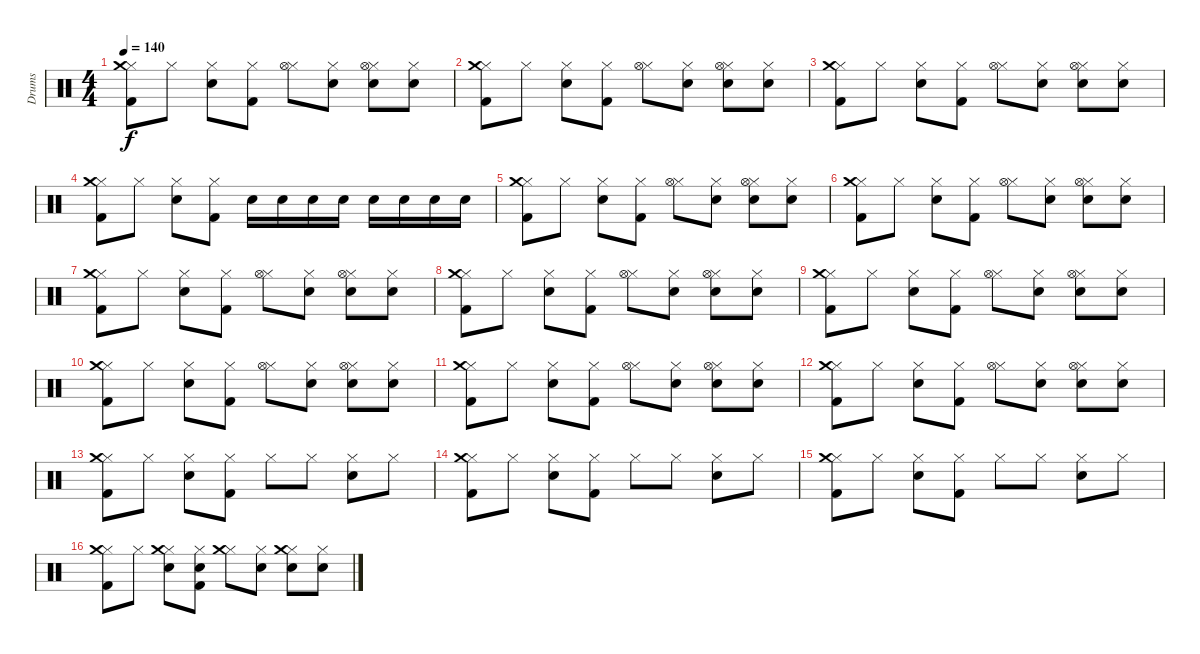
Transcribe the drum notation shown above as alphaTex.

\track ("Drums" "Drums") {instrument percussion}
\staff {score}
\articulation defaults
\ts (4 4)
\tempo 140
\clef neutral
\ks c
("Hi-Hat (closed)" "Kick (hit) 2" "Crash medium (hit)").8{dy f} "Hi-Hat (closed)".8 ("Hi-Hat (closed)" "Electric Snare (hit)").8 ("Hi-Hat (closed)" "Kick (hit) 2").8 ("Hi-Hat (closed)" "Hi-Hat (open)").8 ("Hi-Hat (closed)" "Electric Snare (hit)").8 ("Hi-Hat (closed)" "Electric Snare (hit)" "Hi-Hat (open)").8 ("Hi-Hat (closed)" "Electric Snare (hit)").8 |
("Hi-Hat (closed)" "Kick (hit) 2" "Crash medium (hit)").8 "Hi-Hat (closed)".8 ("Hi-Hat (closed)" "Electric Snare (hit)").8 ("Hi-Hat (closed)" "Kick (hit) 2").8 ("Hi-Hat (closed)" "Hi-Hat (open)").8 ("Hi-Hat (closed)" "Electric Snare (hit)").8 ("Hi-Hat (closed)" "Electric Snare (hit)" "Hi-Hat (open)").8 ("Hi-Hat (closed)" "Electric Snare (hit)").8 |
("Hi-Hat (closed)" "Kick (hit) 2" "Crash medium (hit)").8 "Hi-Hat (closed)".8 ("Hi-Hat (closed)" "Electric Snare (hit)").8 ("Hi-Hat (closed)" "Kick (hit) 2").8 ("Hi-Hat (closed)" "Hi-Hat (open)").8 ("Hi-Hat (closed)" "Electric Snare (hit)").8 ("Hi-Hat (closed)" "Electric Snare (hit)" "Hi-Hat (open)").8 ("Hi-Hat (closed)" "Electric Snare (hit)").8 |
("Hi-Hat (closed)" "Kick (hit) 2" "Crash medium (hit)").8 "Hi-Hat (closed)".8 ("Hi-Hat (closed)" "Electric Snare (hit)").8 ("Hi-Hat (closed)" "Kick (hit) 2").8 "Electric Snare (hit)".16 "Snare (hit) 2".16 "Electric Snare (hit)".16 "Snare (hit) 2".16 "Electric Snare (hit)".16 "Snare (hit) 2".16 "Electric Snare (hit)".16 "Snare (hit) 2".16 |
("Hi-Hat (closed)" "Kick (hit) 2" "Crash medium (hit)").8 "Hi-Hat (closed)".8 ("Hi-Hat (closed)" "Electric Snare (hit)").8 ("Hi-Hat (closed)" "Kick (hit) 2").8 ("Hi-Hat (closed)" "Hi-Hat (open)").8 ("Hi-Hat (closed)" "Electric Snare (hit)").8 ("Hi-Hat (closed)" "Electric Snare (hit)" "Hi-Hat (open)").8 ("Hi-Hat (closed)" "Electric Snare (hit)").8 |
("Hi-Hat (closed)" "Kick (hit) 2" "Crash medium (hit)").8 "Hi-Hat (closed)".8 ("Hi-Hat (closed)" "Electric Snare (hit)").8 ("Hi-Hat (closed)" "Kick (hit) 2").8 ("Hi-Hat (closed)" "Hi-Hat (open)").8 ("Hi-Hat (closed)" "Electric Snare (hit)").8 ("Hi-Hat (closed)" "Electric Snare (hit)" "Hi-Hat (open)").8 ("Hi-Hat (closed)" "Electric Snare (hit)").8 |
("Hi-Hat (closed)" "Kick (hit) 2" "Crash medium (hit)").8 "Hi-Hat (closed)".8 ("Hi-Hat (closed)" "Electric Snare (hit)").8 ("Hi-Hat (closed)" "Kick (hit) 2").8 ("Hi-Hat (closed)" "Hi-Hat (open)").8 ("Hi-Hat (closed)" "Electric Snare (hit)").8 ("Hi-Hat (closed)" "Electric Snare (hit)" "Hi-Hat (open)").8 ("Hi-Hat (closed)" "Electric Snare (hit)").8 |
("Hi-Hat (closed)" "Kick (hit) 2" "Crash medium (hit)").8 "Hi-Hat (closed)".8 ("Hi-Hat (closed)" "Electric Snare (hit)").8 ("Hi-Hat (closed)" "Kick (hit) 2").8 ("Hi-Hat (closed)" "Hi-Hat (open)").8 ("Hi-Hat (closed)" "Electric Snare (hit)").8 ("Hi-Hat (closed)" "Electric Snare (hit)" "Hi-Hat (open)").8 ("Hi-Hat (closed)" "Electric Snare (hit)").8 |
("Hi-Hat (closed)" "Kick (hit) 2" "Crash medium (hit)").8 "Hi-Hat (closed)".8 ("Hi-Hat (closed)" "Electric Snare (hit)").8 ("Hi-Hat (closed)" "Kick (hit) 2").8 ("Hi-Hat (closed)" "Hi-Hat (open)").8 ("Hi-Hat (closed)" "Electric Snare (hit)").8 ("Hi-Hat (closed)" "Electric Snare (hit)" "Hi-Hat (open)").8 ("Hi-Hat (closed)" "Electric Snare (hit)").8 |
("Hi-Hat (closed)" "Kick (hit) 2" "Crash medium (hit)").8 "Hi-Hat (closed)".8 ("Hi-Hat (closed)" "Electric Snare (hit)").8 ("Hi-Hat (closed)" "Kick (hit) 2").8 ("Hi-Hat (closed)" "Hi-Hat (open)").8 ("Hi-Hat (closed)" "Electric Snare (hit)").8 ("Hi-Hat (closed)" "Electric Snare (hit)" "Hi-Hat (open)").8 ("Hi-Hat (closed)" "Electric Snare (hit)").8 |
("Hi-Hat (closed)" "Kick (hit) 2" "Crash medium (hit)").8 "Hi-Hat (closed)".8 ("Hi-Hat (closed)" "Electric Snare (hit)").8 ("Hi-Hat (closed)" "Kick (hit) 2").8 ("Hi-Hat (closed)" "Hi-Hat (open)").8 ("Hi-Hat (closed)" "Electric Snare (hit)").8 ("Hi-Hat (closed)" "Electric Snare (hit)" "Hi-Hat (open)").8 ("Hi-Hat (closed)" "Electric Snare (hit)").8 |
("Hi-Hat (closed)" "Kick (hit) 2" "Crash medium (hit)").8 "Hi-Hat (closed)".8 ("Hi-Hat (closed)" "Electric Snare (hit)").8 ("Hi-Hat (closed)" "Kick (hit) 2").8 ("Hi-Hat (closed)" "Hi-Hat (open)").8 ("Hi-Hat (closed)" "Electric Snare (hit)").8 ("Hi-Hat (closed)" "Electric Snare (hit)" "Hi-Hat (open)").8 ("Hi-Hat (closed)" "Electric Snare (hit)").8 |
("Hi-Hat (closed)" "Kick (hit) 2" "Crash medium (hit)").8 "Hi-Hat (closed)".8 ("Hi-Hat (closed)" "Electric Snare (hit)").8 ("Hi-Hat (closed)" "Kick (hit) 2").8 "Hi-Hat (closed)".8 "Hi-Hat (closed)".8 ("Hi-Hat (closed)" "Electric Snare (hit)").8 "Hi-Hat (closed)".8 |
("Hi-Hat (closed)" "Kick (hit) 2" "Crash medium (hit)").8 "Hi-Hat (closed)".8 ("Hi-Hat (closed)" "Electric Snare (hit)").8 ("Hi-Hat (closed)" "Kick (hit) 2").8 "Hi-Hat (closed)".8 "Hi-Hat (closed)".8 ("Hi-Hat (closed)" "Electric Snare (hit)").8 "Hi-Hat (closed)".8 |
("Hi-Hat (closed)" "Kick (hit) 2" "Crash medium (hit)").8 "Hi-Hat (closed)".8 ("Hi-Hat (closed)" "Electric Snare (hit)").8 ("Hi-Hat (closed)" "Kick (hit) 2").8 "Hi-Hat (closed)".8 "Hi-Hat (closed)".8 ("Hi-Hat (closed)" "Electric Snare (hit)").8 "Hi-Hat (closed)".8 |
("Hi-Hat (closed)" "Kick (hit) 2" "Crash medium (hit)").8 "Hi-Hat (closed)".8 ("Hi-Hat (closed)" "Electric Snare (hit)" "Crash medium (hit)").8 ("Hi-Hat (closed)" "Kick (hit) 2" "Snare (hit) 2").8 ("Hi-Hat (closed)" "Crash medium (hit)").8 ("Hi-Hat (closed)" "Snare (hit) 2").8 ("Hi-Hat (closed)" "Electric Snare (hit)" "Crash medium (hit)").8 ("Hi-Hat (closed)" "Snare (hit) 2").8
